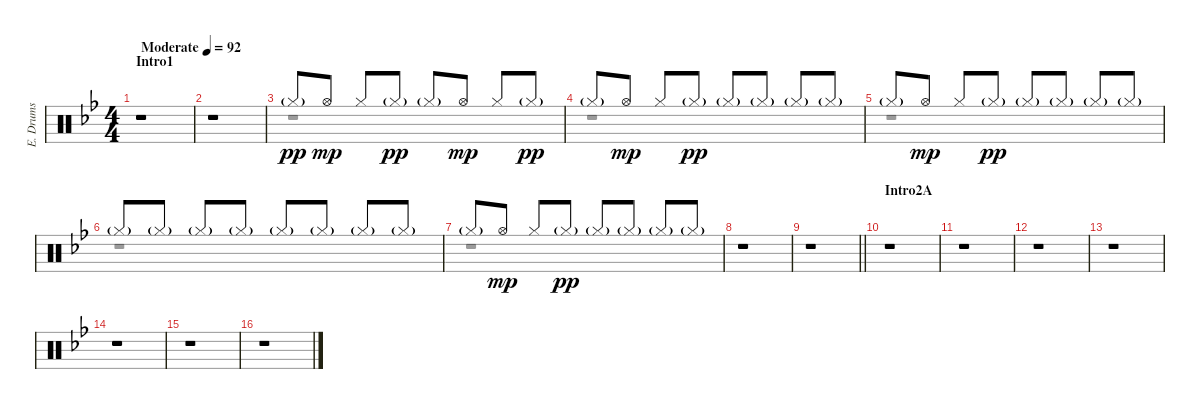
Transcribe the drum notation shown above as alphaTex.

\track ("E. Drums" "E. Drums") {instrument percussion}
\staff {score}
\articulation defaults
\voice
\ts (4 4)
\section ("" "Intro1")
\tempo (92 "Moderate")
\clef neutral
\ks bb
r.1{dy pp} |
r.1 |
"Hi-Hat (closed)"{g}.8 "Hi-Hat (open)".8{dy mp} "Hi-Hat (closed)".8 "Hi-Hat (closed)"{g}.8{dy pp} "Hi-Hat (closed)"{g}.8 "Hi-Hat (open)".8{dy mp} "Hi-Hat (closed)".8 "Hi-Hat (closed)"{g}.8{dy pp} |
"Hi-Hat (closed)"{g}.8 "Hi-Hat (open)".8{dy mp} "Hi-Hat (closed)".8 "Hi-Hat (closed)"{g}.8{dy pp} "Hi-Hat (closed)"{g}.8 "Hi-Hat (closed)"{g}.8 "Hi-Hat (closed)"{g}.8 "Hi-Hat (closed)"{g}.8 |
"Hi-Hat (closed)"{g}.8 "Hi-Hat (open)".8{dy mp} "Hi-Hat (closed)".8 "Hi-Hat (closed)"{g}.8{dy pp} "Hi-Hat (closed)"{g}.8 "Hi-Hat (closed)"{g}.8 "Hi-Hat (closed)"{g}.8 "Hi-Hat (closed)"{g}.8 |
"Hi-Hat (closed)"{g}.8 "Hi-Hat (closed)"{g}.8 "Hi-Hat (closed)"{g}.8 "Hi-Hat (closed)"{g}.8 "Hi-Hat (closed)"{g}.8 "Hi-Hat (closed)"{g}.8 "Hi-Hat (closed)"{g}.8 "Hi-Hat (closed)"{g}.8 |
"Hi-Hat (closed)"{g}.8 "Hi-Hat (open)".8{dy mp} "Hi-Hat (closed)".8 "Hi-Hat (closed)"{g}.8{dy pp} "Hi-Hat (closed)"{g}.8 "Hi-Hat (closed)"{g}.8 "Hi-Hat (closed)"{g}.8 "Hi-Hat (closed)"{g}.8 |
r.1 |
\barLineRight lightlight
r.1 |
\section ("" "Intro2A")
r.1 |
r.1 |
r.1 |
r.1 |
r.1 |
r.1 |
r.1
\voice
\clef neutral
\ottava regular
\simile none
\ks bb
r.1{dy mp} |
r.1 |
r.1 |
r.1 |
r.1 |
r.1 |
r.1 |
r.1 |
\barLineRight lightlight
r.1 |
r.1 |
r.1 |
r.1 |
r.1 |
r.1 |
r.1 |
r.1
